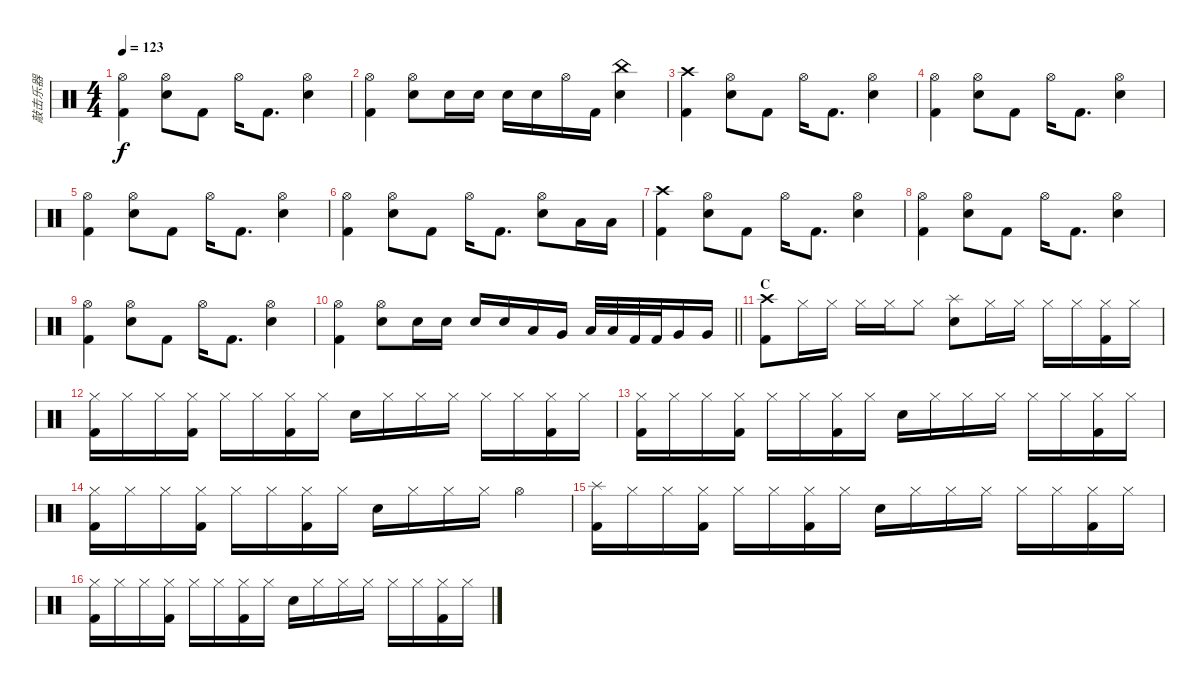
\track ("敲击乐器" "敲击乐器") {instrument percussion}
\staff {score}
\articulation defaults
\ts (4 4)
\tempo 123
\clef neutral
\ks c
("Hi-Hat (open)" "Kick (hit) 2").4{dy f} ("Hi-Hat (open)" "Electric Snare (hit)").8 "Kick (hit) 2".8 "Hi-Hat (open)".16 "Kick (hit) 2".8{d} ("Hi-Hat (open)" "Electric Snare (hit)").4 |
("Hi-Hat (open)" "Kick (hit) 2").4 ("Hi-Hat (open)" "Electric Snare (hit)").8 "Electric Snare (hit)".16 "Electric Snare (hit)".16 "Electric Snare (hit)".16 "Electric Snare (hit)".16 "Hi-Hat (open)".16 "Kick (hit) 2".16 ("China (hit)" "Electric Snare (hit)").4 |
("Crash high (hit)" "Kick (hit) 2").4 ("Hi-Hat (open)" "Electric Snare (hit)").8 "Kick (hit) 2".8 "Hi-Hat (open)".16 "Kick (hit) 2".8{d} ("Hi-Hat (open)" "Electric Snare (hit)").4 |
("Hi-Hat (open)" "Kick (hit) 2").4 ("Hi-Hat (open)" "Electric Snare (hit)").8 "Kick (hit) 2".8 "Hi-Hat (open)".16 "Kick (hit) 2".8{d} ("Hi-Hat (open)" "Electric Snare (hit)").4 |
("Hi-Hat (open)" "Kick (hit) 2").4 ("Hi-Hat (open)" "Electric Snare (hit)").8 "Kick (hit) 2".8 "Hi-Hat (open)".16 "Kick (hit) 2".8{d} ("Hi-Hat (open)" "Electric Snare (hit)").4 |
("Hi-Hat (open)" "Kick (hit) 2").4 ("Hi-Hat (open)" "Electric Snare (hit)").8 "Kick (hit) 2".8 "Hi-Hat (open)".16 "Kick (hit) 2".8{d} ("Hi-Hat (open)" "Electric Snare (hit)").8 "Low Tom (hit)".16 "Low Tom (hit)".16 |
("Crash high (hit)" "Kick (hit) 2").4 ("Hi-Hat (open)" "Electric Snare (hit)").8 "Kick (hit) 2".8 "Hi-Hat (open)".16 "Kick (hit) 2".8{d} ("Hi-Hat (open)" "Electric Snare (hit)").4 |
("Hi-Hat (open)" "Kick (hit) 2").4 ("Hi-Hat (open)" "Electric Snare (hit)").8 "Kick (hit) 2".8 "Hi-Hat (open)".16 "Kick (hit) 2".8{d} ("Hi-Hat (open)" "Electric Snare (hit)").4 |
("Hi-Hat (open)" "Kick (hit) 2").4 ("Hi-Hat (open)" "Electric Snare (hit)").8 "Kick (hit) 2".8 "Hi-Hat (open)".16 "Kick (hit) 2".8{d} ("Hi-Hat (open)" "Electric Snare (hit)").4 |
\barLineRight lightlight
("Hi-Hat (open)" "Kick (hit) 2").4 ("Hi-Hat (open)" "Electric Snare (hit)").8 "Electric Snare (hit)".16 "Electric Snare (hit)".16 "Electric Snare (hit)".16 "Electric Snare (hit)".16 "Low Tom (hit)".16 "Very Low Tom (hit)".16 "Low Tom (hit)".32 "Low Tom (hit)".32 "Kick (hit) 2".32 "Kick (hit) 2".32 "Very Low Tom (hit)".16 "Very Low Tom (hit)".16 |
\section ("" "C")
("Crash high (hit)" "Kick (hit) 2").8 "Hi-Hat (closed)".16 "Hi-Hat (closed)".16 "Hi-Hat (closed)".16 "Hi-Hat (closed)".16 "Hi-Hat (closed)".8 ("Splash (hit)" "Electric Snare (hit)").8 "Hi-Hat (closed)".16 "Hi-Hat (closed)".16 "Hi-Hat (closed)".16 "Hi-Hat (closed)".16 ("Hi-Hat (closed)" "Kick (hit) 2").16 "Hi-Hat (closed)".16 |
("Hi-Hat (closed)" "Kick (hit) 2").16 "Hi-Hat (closed)".16 "Hi-Hat (closed)".16 ("Hi-Hat (closed)" "Kick (hit) 2").16 "Hi-Hat (closed)".16 "Hi-Hat (closed)".16 ("Hi-Hat (closed)" "Kick (hit) 2").16 "Hi-Hat (closed)".16 "Electric Snare (hit)".16 "Hi-Hat (closed)".16 "Hi-Hat (closed)".16 "Hi-Hat (closed)".16 "Hi-Hat (closed)".16 "Hi-Hat (closed)".16 ("Hi-Hat (closed)" "Kick (hit) 2").16 "Hi-Hat (closed)".16 |
("Hi-Hat (closed)" "Kick (hit) 2").16 "Hi-Hat (closed)".16 "Hi-Hat (closed)".16 ("Hi-Hat (closed)" "Kick (hit) 2").16 "Hi-Hat (closed)".16 "Hi-Hat (closed)".16 ("Hi-Hat (closed)" "Kick (hit) 2").16 "Hi-Hat (closed)".16 "Electric Snare (hit)".16 "Hi-Hat (closed)".16 "Hi-Hat (closed)".16 "Hi-Hat (closed)".16 "Hi-Hat (closed)".16 "Hi-Hat (closed)".16 ("Hi-Hat (closed)" "Kick (hit) 2").16 "Hi-Hat (closed)".16 |
("Hi-Hat (closed)" "Kick (hit) 2").16 "Hi-Hat (closed)".16 "Hi-Hat (closed)".16 ("Hi-Hat (closed)" "Kick (hit) 2").16 "Hi-Hat (closed)".16 "Hi-Hat (closed)".16 ("Hi-Hat (closed)" "Kick (hit) 2").16 "Hi-Hat (closed)".16 "Electric Snare (hit)".16 "Hi-Hat (closed)".16 "Hi-Hat (closed)".16 "Hi-Hat (closed)".16 "Hi-Hat (open)".4 |
("Splash (hit)" "Kick (hit) 2").16 "Hi-Hat (closed)".16 "Hi-Hat (closed)".16 ("Hi-Hat (closed)" "Kick (hit) 2").16 "Hi-Hat (closed)".16 "Hi-Hat (closed)".16 ("Hi-Hat (closed)" "Kick (hit) 2").16 "Hi-Hat (closed)".16 "Electric Snare (hit)".16 "Hi-Hat (closed)".16 "Hi-Hat (closed)".16 "Hi-Hat (closed)".16 "Hi-Hat (closed)".16 "Hi-Hat (closed)".16 ("Hi-Hat (closed)" "Kick (hit) 2").16 "Hi-Hat (closed)".16 |
("Hi-Hat (closed)" "Kick (hit) 2").16 "Hi-Hat (closed)".16 "Hi-Hat (closed)".16 ("Hi-Hat (closed)" "Kick (hit) 2").16 "Hi-Hat (closed)".16 "Hi-Hat (closed)".16 ("Hi-Hat (closed)" "Kick (hit) 2").16 "Hi-Hat (closed)".16 "Electric Snare (hit)".16 "Hi-Hat (closed)".16 "Hi-Hat (closed)".16 "Hi-Hat (closed)".16 "Hi-Hat (closed)".16 "Hi-Hat (closed)".16 ("Hi-Hat (closed)" "Kick (hit) 2").16 "Hi-Hat (closed)".16
